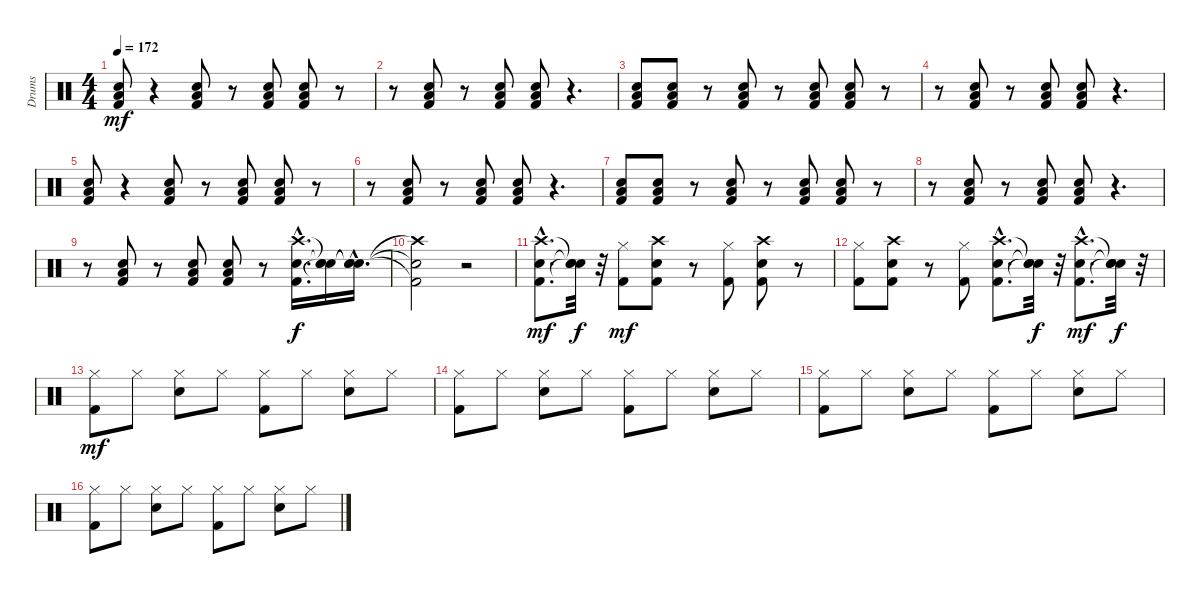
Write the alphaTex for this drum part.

\track ("Drums" "Drums") {instrument percussion}
\staff {score}
\articulation defaults
\ts (4 4)
\tempo 172
\clef neutral
\ks c
("Low Floor Tom (hit)" "Snare (hit) 2" "Kick (hit) 2").8{dy mf} r.4 ("Snare (hit) 2" "Low Floor Tom (hit)" "Kick (hit) 2").8 r.8 ("Low Floor Tom (hit)" "Kick (hit) 2" "Snare (hit) 2").8 ("Kick (hit) 2" "Snare (hit) 2" "Low Floor Tom (hit)").8 r.8 |
r.8 ("Low Floor Tom (hit)" "Snare (hit) 2" "Kick (hit) 2").8 r.8 ("Low Floor Tom (hit)" "Snare (hit) 2" "Kick (hit) 2").8 ("Kick (hit) 2" "Snare (hit) 2" "Low Floor Tom (hit)").8 r.4{d} |
("Low Floor Tom (hit)" "Snare (hit) 2" "Kick (hit) 2").8 ("Low Floor Tom (hit)" "Snare (hit) 2" "Kick (hit) 2").8 r.8 ("Snare (hit) 2" "Kick (hit) 2" "Low Floor Tom (hit)").8 r.8 ("Snare (hit) 2" "Low Floor Tom (hit)" "Kick (hit) 2").8 ("Kick (hit) 2" "Low Floor Tom (hit)" "Snare (hit) 2").8 r.8 |
r.8 ("Kick (hit) 2" "Snare (hit) 2" "Low Floor Tom (hit)").8 r.8 ("Low Floor Tom (hit)" "Kick (hit) 2" "Snare (hit) 2").8 ("Low Floor Tom (hit)" "Snare (hit) 2" "Kick (hit) 2").8 r.4{d} |
("Low Floor Tom (hit)" "Snare (hit) 2" "Kick (hit) 2").8 r.4 ("Snare (hit) 2" "Low Floor Tom (hit)" "Kick (hit) 2").8 r.8 ("Low Floor Tom (hit)" "Kick (hit) 2" "Snare (hit) 2").8 ("Kick (hit) 2" "Snare (hit) 2" "Low Floor Tom (hit)").8 r.8 |
r.8 ("Low Floor Tom (hit)" "Snare (hit) 2" "Kick (hit) 2").8 r.8 ("Low Floor Tom (hit)" "Snare (hit) 2" "Kick (hit) 2").8 ("Kick (hit) 2" "Snare (hit) 2" "Low Floor Tom (hit)").8 r.4{d} |
("Low Floor Tom (hit)" "Snare (hit) 2" "Kick (hit) 2").8 ("Low Floor Tom (hit)" "Snare (hit) 2" "Kick (hit) 2").8 r.8 ("Snare (hit) 2" "Kick (hit) 2" "Low Floor Tom (hit)").8 r.8 ("Snare (hit) 2" "Low Floor Tom (hit)" "Kick (hit) 2").8 ("Kick (hit) 2" "Low Floor Tom (hit)" "Snare (hit) 2").8 r.8 |
r.8 ("Kick (hit) 2" "Snare (hit) 2" "Low Floor Tom (hit)").8 r.8 ("Low Floor Tom (hit)" "Kick (hit) 2" "Snare (hit) 2").8 ("Low Floor Tom (hit)" "Snare (hit) 2" "Kick (hit) 2").8 r.4{d} |
r.8 ("Low Floor Tom (hit)" "Kick (hit) 2" "Snare (hit) 2").8 r.8 ("Kick (hit) 2" "Snare (hit) 2" "Low Floor Tom (hit)").8 ("Kick (hit) 2" "Low Floor Tom (hit)" "Snare (hit) 2").8 r.8 ("Snare (hit) 2"{hac} "Kick (hit) 2"{hac} "Crash high (hit)"{hac}).16{d dy f} ("Snare (hit)"{t} "Snare (hit)"{t} "Snare (hit)"{t}).16 ("Snare (hit)"{hac t} "Snare (hit)"{hac t} "Snare (hit)"{hac t}).16{d} |
("Crash high (hit)"{t} "Snare (hit) 2"{t} "Kick (hit) 2"{t}).2 r.2 |
("Crash high (hit)"{hac} "Snare (hit) 2"{hac} "Kick (hit) 2"{hac}).8{d dy mf} ("Snare (hit)"{t} "Snare (hit)"{t} "Snare (hit)"{t}).32{dy f} r.32 ("Hi-Hat (closed)" "Kick (hit) 2").8{dy mf} ("Kick (hit) 2" "Snare (hit) 2" "Crash high (hit)").8 r.8 ("Kick (hit) 2" "Hi-Hat (closed)").8 ("Crash high (hit)" "Snare (hit) 2" "Kick (hit) 2").8 r.8 |
("Hi-Hat (closed)" "Kick (hit) 2").8 ("Kick (hit) 2" "Crash high (hit)" "Snare (hit) 2").8 r.8 ("Kick (hit) 2" "Hi-Hat (closed)").8 ("Snare (hit) 2"{hac} "Kick (hit) 2"{hac} "Crash high (hit)"{hac}).8{d} ("Snare (hit)"{t} "Snare (hit)"{t} "Snare (hit)"{t}).32{dy f} r.32 ("Crash high (hit)"{hac} "Snare (hit) 2"{hac} "Kick (hit) 2"{hac}).8{d dy mf} ("Snare (hit)"{t} "Snare (hit)"{t} "Snare (hit)"{t}).32{dy f} r.32 |
("Hi-Hat (closed)" "Kick (hit) 2").8{dy mf} "Hi-Hat (closed)".8 ("Hi-Hat (closed)" "Snare (hit) 2").8 "Hi-Hat (closed)".8 ("Hi-Hat (closed)" "Kick (hit) 2").8 "Hi-Hat (closed)".8 ("Hi-Hat (closed)" "Snare (hit) 2").8 "Hi-Hat (closed)".8 |
("Kick (hit) 2" "Hi-Hat (closed)").8 "Hi-Hat (closed)".8 ("Snare (hit) 2" "Hi-Hat (closed)").8 "Hi-Hat (closed)".8 ("Kick (hit) 2" "Hi-Hat (closed)").8 "Hi-Hat (closed)".8 ("Snare (hit) 2" "Hi-Hat (closed)").8 "Hi-Hat (closed)".8 |
("Kick (hit) 2" "Hi-Hat (closed)").8 "Hi-Hat (closed)".8 ("Snare (hit) 2" "Hi-Hat (closed)").8 "Hi-Hat (closed)".8 ("Kick (hit) 2" "Hi-Hat (closed)").8 "Hi-Hat (closed)".8 ("Snare (hit) 2" "Hi-Hat (closed)").8 "Hi-Hat (closed)".8 |
("Kick (hit) 2" "Hi-Hat (closed)").8 "Hi-Hat (closed)".8 ("Snare (hit) 2" "Hi-Hat (closed)").8 "Hi-Hat (closed)".8 ("Kick (hit) 2" "Hi-Hat (closed)").8 "Hi-Hat (closed)".8 ("Snare (hit) 2" "Hi-Hat (closed)").8 "Hi-Hat (closed)".8
